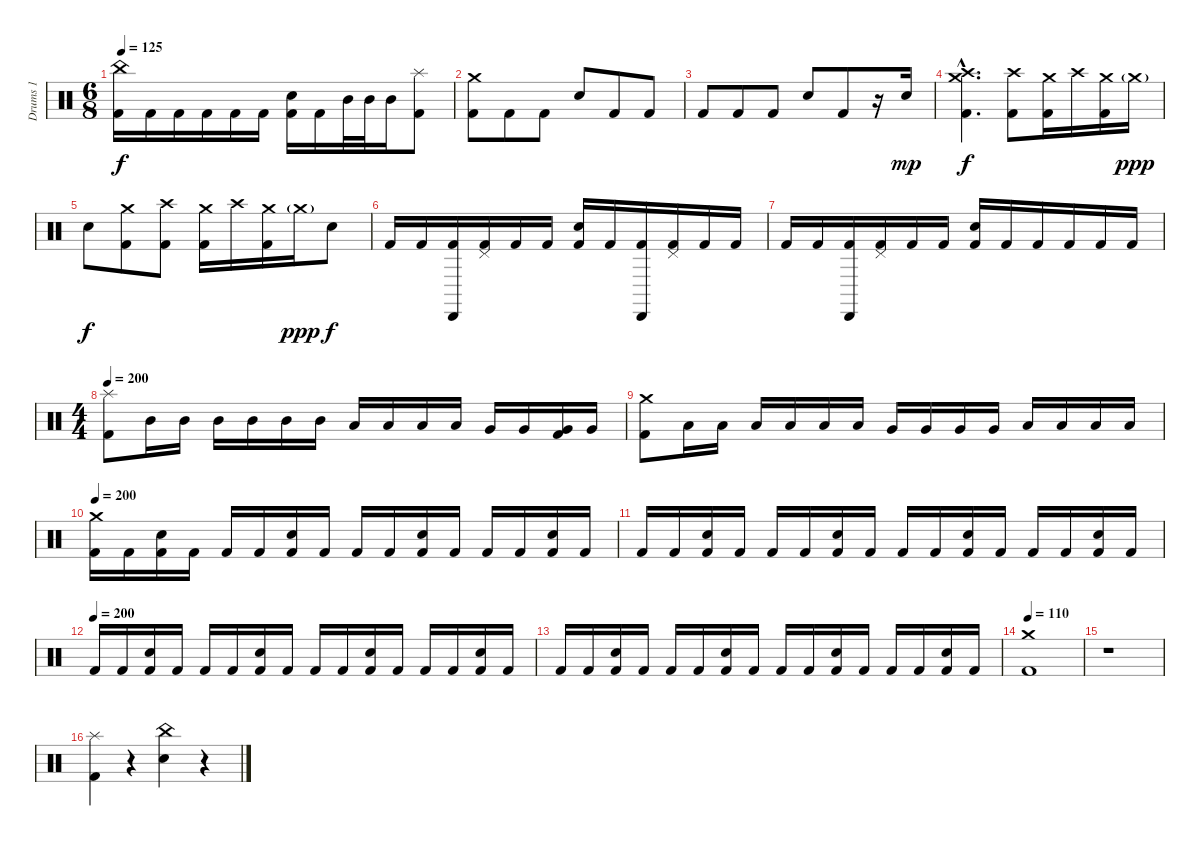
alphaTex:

\track ("Drums 1" "Drums 1") {instrument percussion}
\staff {score}
\articulation defaults
\ts (6 8)
\tempo 125
\clef neutral
\ks c
("China (hit)" "Kick (hit) 2").16{dy f} "Kick (hit) 2".16 "Kick (hit) 2".16 "Kick (hit) 2".16 "Kick (hit) 2".16 "Kick (hit) 2".16 ("Snare (hit) 2" "Kick (hit) 2").16 "Kick (hit) 2".16 "Mid Tom (hit)".32 "Mid Tom (hit)".32 "Mid Tom (hit)".16 ("Splash (hit)" "Kick (hit) 2").8 |
("Crash medium (hit)" "Kick (hit) 2").8 "Kick (hit) 2".8 "Kick (hit) 2".8 "Snare (hit) 2".8 "Kick (hit) 2".8 "Kick (hit) 2".8 |
"Kick (hit) 2".8 "Kick (hit) 2".8 "Kick (hit) 2".8 "Snare (hit) 2".8 "Kick (hit) 2".8 r.16 "Snare (hit) 2".16{dy mp} |
("Crash medium (hit)"{hac} "Crash high (hit)"{hac} "Kick (hit) 2"{hac}).4{d dy f} ("Crash high (hit)" "Kick (hit) 2").8 ("Crash medium (hit)" "Kick (hit) 2").16 "Crash high (hit)".16 ("Crash medium (hit)" "Kick (hit) 2").16 "Crash medium (hit)"{g}.16{dy ppp} |
"Snare (hit) 2".8{dy f} ("Crash medium (hit)" "Kick (hit) 2").8 ("Crash high (hit)" "Kick (hit) 2").8 ("Crash medium (hit)" "Kick (hit) 2").16 "Crash high (hit)".16 ("Crash medium (hit)" "Kick (hit) 2").16 "Crash medium (hit)"{g}.16{dy ppp} "Snare (hit) 2".8{dy f} |
"Kick (hit) 2".16 "Kick (hit) 2".16 ("Cabasa (hit)" "Kick (hit) 2").16 ("Pedal Hi-Hat (hit)" "Kick (hit) 2").16 "Kick (hit) 2".16 "Kick (hit) 2".16 ("Snare (hit) 2" "Kick (hit) 2").16 "Kick (hit) 2".16 ("Cabasa (hit)" "Kick (hit) 2").16 ("Pedal Hi-Hat (hit)" "Kick (hit) 2").16 "Kick (hit) 2".16 "Kick (hit) 2".16 |
"Kick (hit) 2".16 "Kick (hit) 2".16 ("Cabasa (hit)" "Kick (hit) 2").16 ("Pedal Hi-Hat (hit)" "Kick (hit) 2").16 "Kick (hit) 2".16 "Kick (hit) 2".16 ("Snare (hit) 2" "Kick (hit) 2").16 "Kick (hit) 2".16 "Kick (hit) 2".16 "Kick (hit) 2".16 "Kick (hit) 2".16 "Kick (hit) 2".16 |
\ts (4 4)
\tempo 200
("Splash (hit)" "Kick (hit) 2").8 "Mid Tom (hit)".16 "Mid Tom (hit)".16 "Mid Tom (hit)".16 "Mid Tom (hit)".16 "Mid Tom (hit)".16 "Mid Tom (hit)".16 "Low Tom (hit)".16 "Low Tom (hit)".16 "Low Tom (hit)".16 "Low Tom (hit)".16 "Very Low Tom (hit)".16 "Very Low Tom (hit)".16 ("Very Low Tom (hit)" "Kick (hit) 2").16 "Very Low Tom (hit)".16 |
("Crash medium (hit)" "Kick (hit) 2").8 "Low Tom (hit)".16 "Low Tom (hit)".16 "Low Tom (hit)".16 "Low Tom (hit)".16 "Low Tom (hit)".16 "Low Tom (hit)".16 "Very Low Tom (hit)".16 "Very Low Tom (hit)".16 "Very Low Tom (hit)".16 "Very Low Tom (hit)".16 "Low Floor Tom (hit)".16 "Low Floor Tom (hit)".16 "Low Floor Tom (hit)".16 "Low Floor Tom (hit)".16 |
\tempo 200
("Crash medium (hit)" "Kick (hit) 2").16 "Kick (hit) 2".16 ("Snare (hit) 2" "Kick (hit) 2").16 "Kick (hit) 2".16 "Kick (hit) 2".16 "Kick (hit) 2".16 ("Snare (hit) 2" "Kick (hit) 2").16 "Kick (hit) 2".16 "Kick (hit) 2".16 "Kick (hit) 2".16 ("Snare (hit) 2" "Kick (hit) 2").16 "Kick (hit) 2".16 "Kick (hit) 2".16 "Kick (hit) 2".16 ("Snare (hit) 2" "Kick (hit) 2").16 "Kick (hit) 2".16 |
"Kick (hit) 2".16 "Kick (hit) 2".16 ("Snare (hit) 2" "Kick (hit) 2").16 "Kick (hit) 2".16 "Kick (hit) 2".16 "Kick (hit) 2".16 ("Snare (hit) 2" "Kick (hit) 2").16 "Kick (hit) 2".16 "Kick (hit) 2".16 "Kick (hit) 2".16 ("Snare (hit) 2" "Kick (hit) 2").16 "Kick (hit) 2".16 "Kick (hit) 2".16 "Kick (hit) 2".16 ("Snare (hit) 2" "Kick (hit) 2").16 "Kick (hit) 2".16 |
\tempo (200)
"Kick (hit) 2".16 "Kick (hit) 2".16 ("Snare (hit) 2" "Kick (hit) 2").16 "Kick (hit) 2".16 "Kick (hit) 2".16 "Kick (hit) 2".16 ("Snare (hit) 2" "Kick (hit) 2").16 "Kick (hit) 2".16 "Kick (hit) 2".16 "Kick (hit) 2".16 ("Snare (hit) 2" "Kick (hit) 2").16 "Kick (hit) 2".16 "Kick (hit) 2".16 "Kick (hit) 2".16 ("Snare (hit) 2" "Kick (hit) 2").16 "Kick (hit) 2".16 |
"Kick (hit) 2".16 "Kick (hit) 2".16 ("Snare (hit) 2" "Kick (hit) 2").16 "Kick (hit) 2".16 "Kick (hit) 2".16 "Kick (hit) 2".16 ("Snare (hit) 2" "Kick (hit) 2").16 "Kick (hit) 2".16 "Kick (hit) 2".16 "Kick (hit) 2".16 ("Snare (hit) 2" "Kick (hit) 2").16 "Kick (hit) 2".16 "Kick (hit) 2".16 "Kick (hit) 2".16 ("Snare (hit) 2" "Kick (hit) 2").16 "Kick (hit) 2".16 |
\tempo 95
\tempo 110
("Crash medium (hit)" "Kick (hit) 2").1 |
r.1 |
("Splash (hit)" "Kick (hit) 2").4 r.4 ("China (hit)" "Snare (hit) 2").4 r.4
